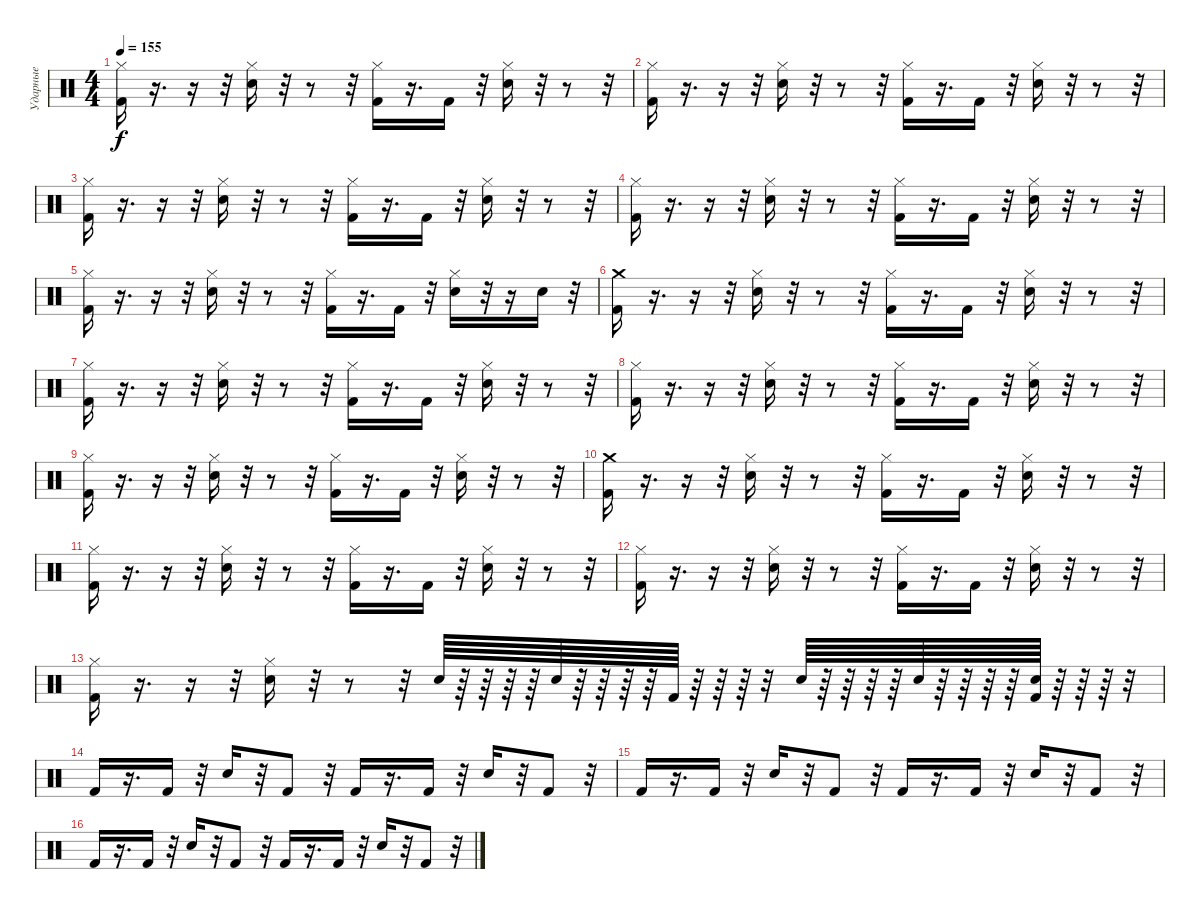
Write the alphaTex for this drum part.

\track ("Ударные" "Ударные") {instrument percussion}
\staff {score}
\articulation defaults
\ts (4 4)
\tempo 155
\clef neutral
\ks c
("Hi-Hat (closed)" "Kick (hit) 2").16{dy f} r.16{d} r.16 r.32 ("Snare (hit) 2" "Hi-Hat (closed)").16 r.32 r.8 r.32 ("Hi-Hat (closed)" "Kick (hit) 2").16 r.16{d} "Kick (hit) 2".16 r.32 ("Snare (hit) 2" "Hi-Hat (closed)").16 r.32 r.8 r.32 |
("Hi-Hat (closed)" "Kick (hit) 2").16 r.16{d} r.16 r.32 ("Snare (hit) 2" "Hi-Hat (closed)").16 r.32 r.8 r.32 ("Hi-Hat (closed)" "Kick (hit) 2").16 r.16{d} "Kick (hit) 2".16 r.32 ("Snare (hit) 2" "Hi-Hat (closed)").16 r.32 r.8 r.32 |
("Hi-Hat (closed)" "Kick (hit) 2").16 r.16{d} r.16 r.32 ("Snare (hit) 2" "Hi-Hat (closed)").16 r.32 r.8 r.32 ("Hi-Hat (closed)" "Kick (hit) 2").16 r.16{d} "Kick (hit) 2".16 r.32 ("Snare (hit) 2" "Hi-Hat (closed)").16 r.32 r.8 r.32 |
("Hi-Hat (closed)" "Kick (hit) 2").16 r.16{d} r.16 r.32 ("Snare (hit) 2" "Hi-Hat (closed)").16 r.32 r.8 r.32 ("Hi-Hat (closed)" "Kick (hit) 2").16 r.16{d} "Kick (hit) 2".16 r.32 ("Snare (hit) 2" "Hi-Hat (closed)").16 r.32 r.8 r.32 |
("Hi-Hat (closed)" "Kick (hit) 2").16 r.16{d} r.16 r.32 ("Snare (hit) 2" "Hi-Hat (closed)").16 r.32 r.8 r.32 ("Hi-Hat (closed)" "Kick (hit) 2").16 r.16{d} "Kick (hit) 2".16 r.32 ("Electric Snare (hit)" "Hi-Hat (closed)").16 r.32 r.16 "Electric Snare (hit)".16 r.32 |
("Crash medium (hit)" "Kick (hit) 2").16 r.16{d} r.16 r.32 ("Snare (hit) 2" "Hi-Hat (closed)").16 r.32 r.8 r.32 ("Hi-Hat (closed)" "Kick (hit) 2").16 r.16{d} "Kick (hit) 2".16 r.32 ("Snare (hit) 2" "Hi-Hat (closed)").16 r.32 r.8 r.32 |
("Hi-Hat (closed)" "Kick (hit) 2").16 r.16{d} r.16 r.32 ("Snare (hit) 2" "Hi-Hat (closed)").16 r.32 r.8 r.32 ("Hi-Hat (closed)" "Kick (hit) 2").16 r.16{d} "Kick (hit) 2".16 r.32 ("Snare (hit) 2" "Hi-Hat (closed)").16 r.32 r.8 r.32 |
("Hi-Hat (closed)" "Kick (hit) 2").16 r.16{d} r.16 r.32 ("Snare (hit) 2" "Hi-Hat (closed)").16 r.32 r.8 r.32 ("Hi-Hat (closed)" "Kick (hit) 2").16 r.16{d} "Kick (hit) 2".16 r.32 ("Snare (hit) 2" "Hi-Hat (closed)").16 r.32 r.8 r.32 |
("Hi-Hat (closed)" "Kick (hit) 2").16 r.16{d} r.16 r.32 ("Snare (hit) 2" "Hi-Hat (closed)").16 r.32 r.8 r.32 ("Hi-Hat (closed)" "Kick (hit) 2").16 r.16{d} "Kick (hit) 2".16 r.32 ("Snare (hit) 2" "Hi-Hat (closed)").16 r.32 r.8 r.32 |
("Crash medium (hit)" "Kick (hit) 2").16 r.16{d} r.16 r.32 ("Snare (hit) 2" "Hi-Hat (closed)").16 r.32 r.8 r.32 ("Hi-Hat (closed)" "Kick (hit) 2").16 r.16{d} "Kick (hit) 2".16 r.32 ("Snare (hit) 2" "Hi-Hat (closed)").16 r.32 r.8 r.32 |
("Hi-Hat (closed)" "Kick (hit) 2").16 r.16{d} r.16 r.32 ("Snare (hit) 2" "Hi-Hat (closed)").16 r.32 r.8 r.32 ("Hi-Hat (closed)" "Kick (hit) 2").16 r.16{d} "Kick (hit) 2".16 r.32 ("Snare (hit) 2" "Hi-Hat (closed)").16 r.32 r.8 r.32 |
("Hi-Hat (closed)" "Kick (hit) 2").16 r.16{d} r.16 r.32 ("Snare (hit) 2" "Hi-Hat (closed)").16 r.32 r.8 r.32 ("Hi-Hat (closed)" "Kick (hit) 2").16 r.16{d} "Kick (hit) 2".16 r.32 ("Snare (hit) 2" "Hi-Hat (closed)").16 r.32 r.8 r.32 |
("Hi-Hat (closed)" "Kick (hit) 2").16 r.16{d} r.16 r.32 ("Snare (hit) 2" "Hi-Hat (closed)").16 r.32 r.8 r.32 "Electric Snare (hit)".64 r.64 r.64 r.64 r.64 "Electric Snare (hit)".64 r.64 r.64 r.64 r.64 "Kick (hit) 2".64 r.64 r.64 r.64 r.32 "Electric Snare (hit)".64 r.64 r.64 r.64 r.64 "Electric Snare (hit)".64 r.64 r.64 r.64 r.64 ("Electric Snare (hit)" "Kick (hit) 2").64 r.64 r.64 r.64 r.32 |
"Kick (hit) 2".16 r.16{d} "Kick (hit) 2".16 r.32 "Snare (hit) 2".16 r.32 "Kick (hit) 2".8 r.32 "Kick (hit) 2".16 r.16{d} "Kick (hit) 2".16 r.32 "Snare (hit) 2".16 r.32 "Kick (hit) 2".8 r.32 |
"Kick (hit) 2".16 r.16{d} "Kick (hit) 2".16 r.32 "Snare (hit) 2".16 r.32 "Kick (hit) 2".8 r.32 "Kick (hit) 2".16 r.16{d} "Kick (hit) 2".16 r.32 "Snare (hit) 2".16 r.32 "Kick (hit) 2".8 r.32 |
"Kick (hit) 2".16 r.16{d} "Kick (hit) 2".16 r.32 "Snare (hit) 2".16 r.32 "Kick (hit) 2".8 r.32 "Kick (hit) 2".16 r.16{d} "Kick (hit) 2".16 r.32 "Snare (hit) 2".16 r.32 "Kick (hit) 2".8 r.32
